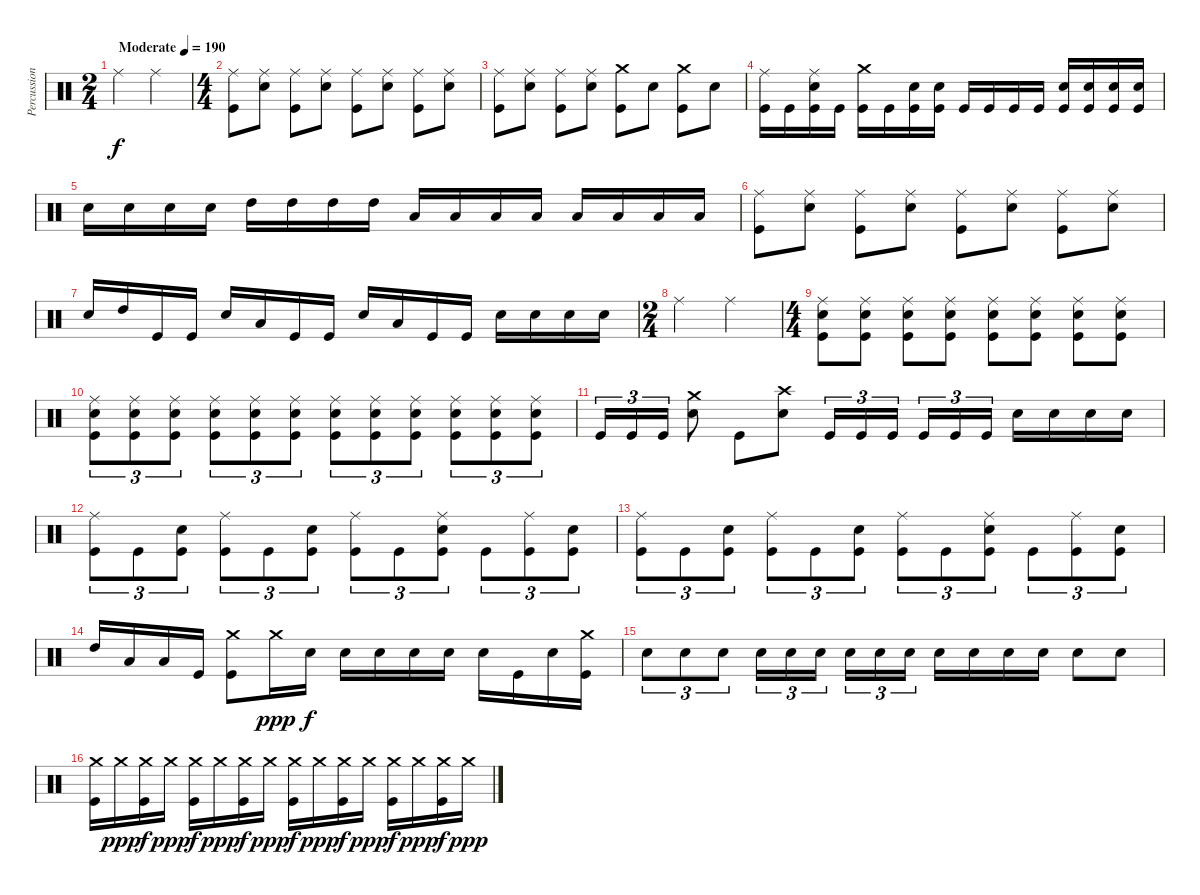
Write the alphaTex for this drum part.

\track ("Percussion" "Percussion") {instrument percussion}
\staff {score}
\articulation defaults
\ts (2 4)
\tempo (190 "Moderate")
\clef neutral
\ks c "Ride (middle)".4{dy f} "Ride (middle)".4
|
\ts (4 4)
("Ride (middle)" "Kick (hit)").8 ("Ride (middle)" "Snare (hit) 2").8 ("Ride (middle)" "Kick (hit)").8 ("Ride (middle)" "Snare (hit) 2").8 ("Ride (middle)" "Kick (hit)").8 ("Ride (middle)" "Snare (hit) 2").8 ("Ride (middle)" "Kick (hit)").8 ("Ride (middle)" "Snare (hit) 2").8 |
("Ride (middle)" "Kick (hit)").8 ("Ride (middle)" "Snare (hit) 2").8 ("Ride (middle)" "Kick (hit)").8 ("Ride (middle)" "Snare (hit) 2").8 ("Crash medium (hit)" "Kick (hit)").8 "Snare (hit) 2".8 ("Crash medium (hit)" "Kick (hit)").8 "Snare (hit) 2".8 |
("Ride (middle)" "Kick (hit)").16 "Kick (hit)".16 ("Ride (middle)" "Snare (hit) 2" "Kick (hit)").16 "Kick (hit)".16 ("Crash medium (hit)" "Kick (hit)").16 "Kick (hit)".16 ("Snare (hit) 2" "Kick (hit)").16 ("Snare (hit) 2" "Kick (hit)").16 "Kick (hit)".16 "Kick (hit)".16 "Kick (hit)".16 "Kick (hit)".16 ("Snare (hit) 2" "Kick (hit)").16 ("Snare (hit) 2" "Kick (hit)").16 ("Snare (hit) 2" "Kick (hit)").16 ("Snare (hit) 2" "Kick (hit)").16 |
"Snare (hit) 2".16 "Snare (hit) 2".16 "Snare (hit) 2".16 "Snare (hit) 2".16 "High Tom (hit)".16 "High Tom (hit)".16 "High Tom (hit)".16 "High Tom (hit)".16 "Low Tom (hit)".16 "Low Tom (hit)".16 "Low Tom (hit)".16 "Low Tom (hit)".16 "Low Floor Tom (hit)".16 "Low Floor Tom (hit)".16 "Low Floor Tom (hit)".16 "Low Floor Tom (hit)".16 |
("Ride (middle)" "Kick (hit)").8 ("Ride (middle)" "Snare (hit) 2").8 ("Ride (middle)" "Kick (hit)").8 ("Ride (middle)" "Snare (hit) 2").8 ("Ride (middle)" "Kick (hit)").8 ("Ride (middle)" "Snare (hit) 2").8 ("Ride (middle)" "Kick (hit)").8 ("Ride (middle)" "Snare (hit) 2").8 |
"Snare (hit) 2".16 "High Tom (hit)".16 "Kick (hit)".16 "Kick (hit)".16 "Snare (hit) 2".16 "Low Tom (hit)".16 "Kick (hit)".16 "Kick (hit)".16 "Snare (hit) 2".16 "Low Floor Tom (hit)".16 "Kick (hit)".16 "Kick (hit)".16 "Snare (hit) 2".16 "Snare (hit) 2".16 "Snare (hit) 2".16 "Snare (hit) 2".16 |
\ts (2 4)
"Ride (middle)".4 "Ride (middle)".4 |
\ts (4 4)
("Ride (middle)" "Snare (hit) 2" "Kick (hit)").8 ("Ride (middle)" "Snare (hit) 2" "Kick (hit)").8 ("Ride (middle)" "Snare (hit) 2" "Kick (hit)").8 ("Ride (middle)" "Snare (hit) 2" "Kick (hit)").8 ("Ride (middle)" "Snare (hit) 2" "Kick (hit)").8 ("Ride (middle)" "Snare (hit) 2" "Kick (hit)").8 ("Ride (middle)" "Snare (hit) 2" "Kick (hit)").8 ("Ride (middle)" "Snare (hit) 2" "Kick (hit)").8 |
("Ride (middle)" "Snare (hit) 2" "Kick (hit)").8{tu (3 2)} ("Ride (middle)" "Snare (hit) 2" "Kick (hit)").8{tu (3 2)} ("Ride (middle)" "Snare (hit) 2" "Kick (hit)").8{tu (3 2)} ("Ride (middle)" "Snare (hit) 2" "Kick (hit)").8{tu (3 2)} ("Ride (middle)" "Snare (hit) 2" "Kick (hit)").8{tu (3 2)} ("Ride (middle)" "Snare (hit) 2" "Kick (hit)").8{tu (3 2)} ("Ride (middle)" "Snare (hit) 2" "Kick (hit)").8{tu (3 2)} ("Ride (middle)" "Snare (hit) 2" "Kick (hit)").8{tu (3 2)} ("Ride (middle)" "Snare (hit) 2" "Kick (hit)").8{tu (3 2)} ("Ride (middle)" "Snare (hit) 2" "Kick (hit)").8{tu (3 2)} ("Ride (middle)" "Snare (hit) 2" "Kick (hit)").8{tu (3 2)} ("Ride (middle)" "Snare (hit) 2" "Kick (hit)").8{tu (3 2)} |
"Kick (hit)".16{tu (3 2)} "Kick (hit)".16{tu (3 2)} "Kick (hit)".16{tu (3 2)} ("Crash medium (hit)" "Snare (hit) 2").8 "Kick (hit)".8 ("Crash high (hit)" "Snare (hit) 2").8 "Kick (hit)".16{tu (3 2)} "Kick (hit)".16{tu (3 2)} "Kick (hit)".16{tu (3 2) beam splitsecondary} "Kick (hit)".16{tu (3 2)} "Kick (hit)".16{tu (3 2)} "Kick (hit)".16{tu (3 2)} "Snare (hit) 2".16 "Snare (hit) 2".16 "Snare (hit) 2".16 "Snare (hit) 2".16 |
("Ride (middle)" "Kick (hit)").8{tu (3 2)} "Kick (hit)".8{tu (3 2)} ("Snare (hit) 2" "Kick (hit)").8{tu (3 2)} ("Ride (middle)" "Kick (hit)").8{tu (3 2)} "Kick (hit)".8{tu (3 2)} ("Snare (hit) 2" "Kick (hit)").8{tu (3 2)} ("Ride (middle)" "Kick (hit)").8{tu (3 2)} "Kick (hit)".8{tu (3 2)} ("Ride (middle)" "Snare (hit) 2" "Kick (hit)").8{tu (3 2)} "Kick (hit)".8{tu (3 2)} ("Ride (middle)" "Kick (hit)").8{tu (3 2)} ("Snare (hit) 2" "Kick (hit)").8{tu (3 2)} |
("Ride (middle)" "Kick (hit)").8{tu (3 2)} "Kick (hit)".8{tu (3 2)} ("Snare (hit) 2" "Kick (hit)").8{tu (3 2)} ("Ride (middle)" "Kick (hit)").8{tu (3 2)} "Kick (hit)".8{tu (3 2)} ("Snare (hit) 2" "Kick (hit)").8{tu (3 2)} ("Ride (middle)" "Kick (hit)").8{tu (3 2)} "Kick (hit)".8{tu (3 2)} ("Ride (middle)" "Snare (hit) 2" "Kick (hit)").8{tu (3 2)} "Kick (hit)".8{tu (3 2)} ("Ride (middle)" "Kick (hit)").8{tu (3 2)} ("Snare (hit) 2" "Kick (hit)").8{tu (3 2)} |
"High Tom (hit)".16 "Low Tom (hit)".16 "Low Floor Tom (hit)".16 "Kick (hit)".16 ("Crash medium (hit)" "Kick (hit)").8 "Crash medium (hit)".16{dy ppp} "Snare (hit) 2".16{dy f} "Snare (hit) 2".16 "Snare (hit) 2".16 "Snare (hit) 2".16 "Snare (hit) 2".16 "Snare (hit) 2".16 "Kick (hit)".16 "Snare (hit) 2".16 ("Crash medium (hit)" "Kick (hit)").16 |
"Snare (hit) 2".8{tu (3 2)} "Snare (hit) 2".8{tu (3 2)} "Snare (hit) 2".8{tu (3 2)} "Snare (hit) 2".16{tu (3 2)} "Snare (hit) 2".16{tu (3 2)} "Snare (hit) 2".16{tu (3 2) beam splitsecondary} "Snare (hit) 2".16{tu (3 2)} "Snare (hit) 2".16{tu (3 2)} "Snare (hit) 2".16{tu (3 2)} "Snare (hit) 2".16 "Snare (hit) 2".16 "Snare (hit) 2".16 "Snare (hit) 2".16 "Snare (hit) 2".8 "Snare (hit) 2".8 |
("Crash medium (hit)" "Kick (hit)").16 "Crash medium (hit)".16{dy ppp} ("Crash medium (hit)" "Kick (hit)").16{dy f} "Crash medium (hit)".16{dy ppp} ("Crash medium (hit)" "Kick (hit)").16{dy f} "Crash medium (hit)".16{dy ppp} ("Crash medium (hit)" "Kick (hit)").16{dy f} "Crash medium (hit)".16{dy ppp} ("Crash medium (hit)" "Kick (hit)").16{dy f} "Crash medium (hit)".16{dy ppp} ("Crash medium (hit)" "Kick (hit)").16{dy f} "Crash medium (hit)".16{dy ppp} ("Crash medium (hit)" "Kick (hit)").16{dy f} "Crash medium (hit)".16{dy ppp} ("Crash medium (hit)" "Kick (hit)").16{dy f} "Crash medium (hit)".16{dy ppp}
